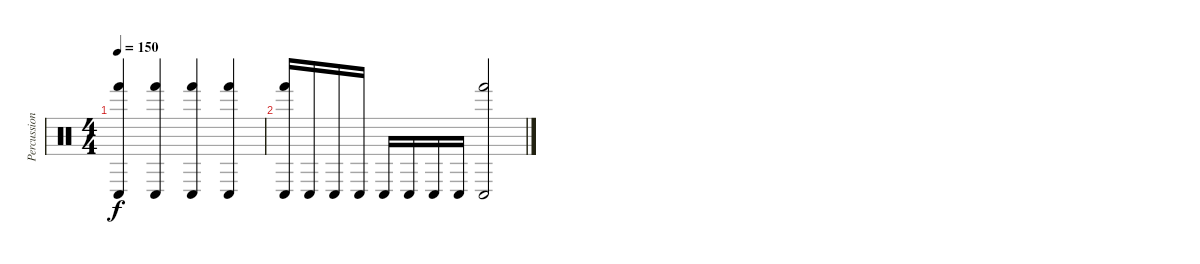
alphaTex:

\track ("Percussion" "Percussion") {instrument percussion}
\staff {score}
\articulation defaults
\ts (4 4)
\tempo 150
\clef neutral
\ks c
("Hand (hit)" "Conga low (hit)").4{dy f} ("Hand (hit)" "Conga low (hit)").4 ("Hand (hit)" "Conga low (hit)").4 ("Hand (hit)" "Conga low (hit)").4 |
("Hand (hit)" "Conga low (hit)").16 "Conga low (hit)".16 "Conga low (hit)".16 "Conga low (hit)".16 "Conga low (hit)".16 "Conga low (hit)".16 "Conga low (hit)".16 "Conga low (hit)".16 ("Hand (hit)" "Conga low (hit)").2
